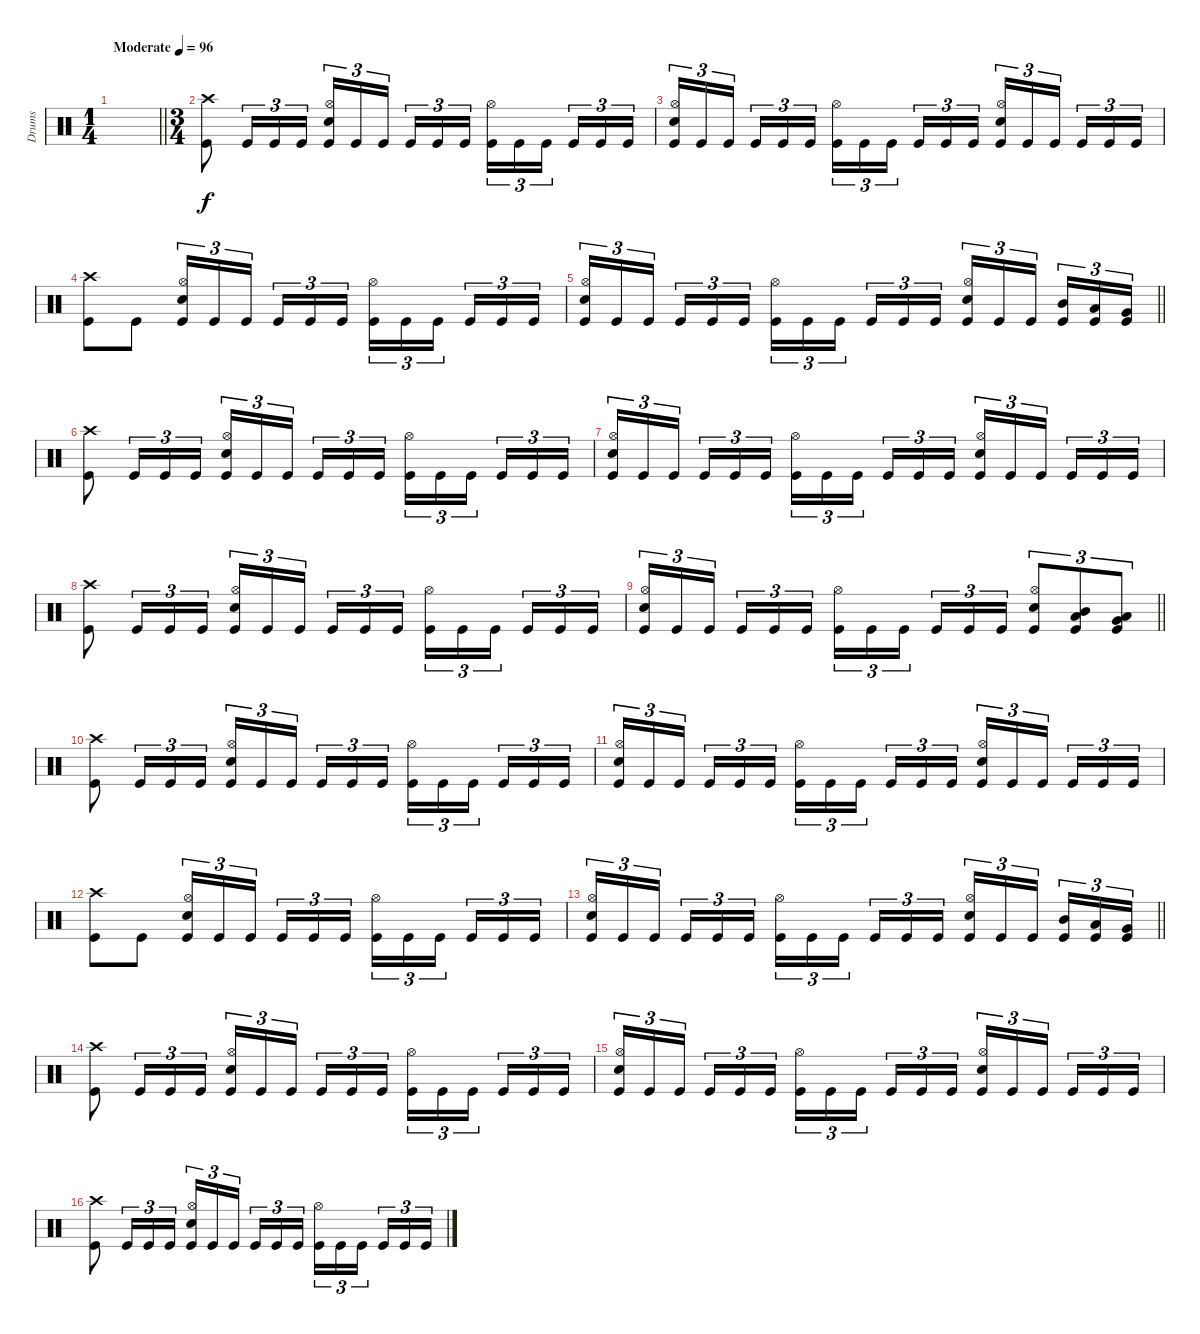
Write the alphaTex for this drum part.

\track ("Drums" "Drums") {instrument percussion}
\staff
\articulation defaults
\ts (1 4)
\tempo (96 "Moderate")
\clef neutral
\barLineRight lightlight
\ks c
|
\ts (3 4)
("Crash high (hit)" "Kick (hit)").8 "Kick (hit)".16{tu (3 2)} "Kick (hit)".16{tu (3 2)} "Kick (hit)".16{tu (3 2)} ("Hi-Hat (open)" "Electric Snare (hit)" "Kick (hit)").16{tu (3 2)} "Kick (hit)".16{tu (3 2)} "Kick (hit)".16{tu (3 2) beam splitsecondary} "Kick (hit)".16{tu (3 2)} "Kick (hit)".16{tu (3 2)} "Kick (hit)".16{tu (3 2)} ("Hi-Hat (open)" "Kick (hit)").16{tu (3 2)} "Kick (hit)".16{tu (3 2)} "Kick (hit)".16{tu (3 2) beam splitsecondary} "Kick (hit)".16{tu (3 2)} "Kick (hit)".16{tu (3 2)} "Kick (hit)".16{tu (3 2)} |
("Hi-Hat (open)" "Electric Snare (hit)" "Kick (hit)").16{tu (3 2)} "Kick (hit)".16{tu (3 2)} "Kick (hit)".16{tu (3 2) beam splitsecondary} "Kick (hit)".16{tu (3 2)} "Kick (hit)".16{tu (3 2)} "Kick (hit)".16{tu (3 2)} ("Hi-Hat (open)" "Kick (hit)").16{tu (3 2)} "Kick (hit)".16{tu (3 2)} "Kick (hit)".16{tu (3 2) beam splitsecondary} "Kick (hit)".16{tu (3 2)} "Kick (hit)".16{tu (3 2)} "Kick (hit)".16{tu (3 2)} ("Hi-Hat (open)" "Electric Snare (hit)" "Kick (hit)").16{tu (3 2)} "Kick (hit)".16{tu (3 2)} "Kick (hit)".16{tu (3 2) beam splitsecondary} "Kick (hit)".16{tu (3 2)} "Kick (hit)".16{tu (3 2)} "Kick (hit)".16{tu (3 2)} |
("Crash high (hit)" "Kick (hit)").8 "Kick (hit)".8 ("Hi-Hat (open)" "Electric Snare (hit)" "Kick (hit)").16{tu (3 2)} "Kick (hit)".16{tu (3 2)} "Kick (hit)".16{tu (3 2) beam splitsecondary} "Kick (hit)".16{tu (3 2)} "Kick (hit)".16{tu (3 2)} "Kick (hit)".16{tu (3 2)} ("Hi-Hat (open)" "Kick (hit)").16{tu (3 2)} "Kick (hit)".16{tu (3 2)} "Kick (hit)".16{tu (3 2) beam splitsecondary} "Kick (hit)".16{tu (3 2)} "Kick (hit)".16{tu (3 2)} "Kick (hit)".16{tu (3 2)} |
\barLineRight lightlight
("Hi-Hat (open)" "Electric Snare (hit)" "Kick (hit)").16{tu (3 2)} "Kick (hit)".16{tu (3 2)} "Kick (hit)".16{tu (3 2) beam splitsecondary} "Kick (hit)".16{tu (3 2)} "Kick (hit)".16{tu (3 2)} "Kick (hit)".16{tu (3 2)} ("Hi-Hat (open)" "Kick (hit)").16{tu (3 2)} "Kick (hit)".16{tu (3 2)} "Kick (hit)".16{tu (3 2) beam splitsecondary} "Kick (hit)".16{tu (3 2)} "Kick (hit)".16{tu (3 2)} "Kick (hit)".16{tu (3 2)} ("Hi-Hat (open)" "Electric Snare (hit)" "Kick (hit)").16{tu (3 2)} "Kick (hit)".16{tu (3 2)} "Kick (hit)".16{tu (3 2) beam splitsecondary} ("Mid Tom (hit)" "Kick (hit)").16{tu (3 2)} ("Low Tom (hit)" "Kick (hit)").16{tu (3 2)} ("Very Low Tom (hit)" "Kick (hit)").16{tu (3 2)} |
("Crash high (hit)" "Kick (hit)").8 "Kick (hit)".16{tu (3 2)} "Kick (hit)".16{tu (3 2)} "Kick (hit)".16{tu (3 2)} ("Hi-Hat (open)" "Electric Snare (hit)" "Kick (hit)").16{tu (3 2)} "Kick (hit)".16{tu (3 2)} "Kick (hit)".16{tu (3 2) beam splitsecondary} "Kick (hit)".16{tu (3 2)} "Kick (hit)".16{tu (3 2)} "Kick (hit)".16{tu (3 2)} ("Hi-Hat (open)" "Kick (hit)").16{tu (3 2)} "Kick (hit)".16{tu (3 2)} "Kick (hit)".16{tu (3 2) beam splitsecondary} "Kick (hit)".16{tu (3 2)} "Kick (hit)".16{tu (3 2)} "Kick (hit)".16{tu (3 2)} |
("Hi-Hat (open)" "Electric Snare (hit)" "Kick (hit)").16{tu (3 2)} "Kick (hit)".16{tu (3 2)} "Kick (hit)".16{tu (3 2) beam splitsecondary} "Kick (hit)".16{tu (3 2)} "Kick (hit)".16{tu (3 2)} "Kick (hit)".16{tu (3 2)} ("Hi-Hat (open)" "Kick (hit)").16{tu (3 2)} "Kick (hit)".16{tu (3 2)} "Kick (hit)".16{tu (3 2) beam splitsecondary} "Kick (hit)".16{tu (3 2)} "Kick (hit)".16{tu (3 2)} "Kick (hit)".16{tu (3 2)} ("Hi-Hat (open)" "Electric Snare (hit)" "Kick (hit)").16{tu (3 2)} "Kick (hit)".16{tu (3 2)} "Kick (hit)".16{tu (3 2) beam splitsecondary} "Kick (hit)".16{tu (3 2)} "Kick (hit)".16{tu (3 2)} "Kick (hit)".16{tu (3 2)} |
("Crash high (hit)" "Kick (hit)").8 "Kick (hit)".16{tu (3 2)} "Kick (hit)".16{tu (3 2)} "Kick (hit)".16{tu (3 2)} ("Hi-Hat (open)" "Electric Snare (hit)" "Kick (hit)").16{tu (3 2)} "Kick (hit)".16{tu (3 2)} "Kick (hit)".16{tu (3 2) beam splitsecondary} "Kick (hit)".16{tu (3 2)} "Kick (hit)".16{tu (3 2)} "Kick (hit)".16{tu (3 2)} ("Hi-Hat (open)" "Kick (hit)").16{tu (3 2)} "Kick (hit)".16{tu (3 2)} "Kick (hit)".16{tu (3 2) beam splitsecondary} "Kick (hit)".16{tu (3 2)} "Kick (hit)".16{tu (3 2)} "Kick (hit)".16{tu (3 2)} |
\barLineRight lightlight
("Hi-Hat (open)" "Electric Snare (hit)" "Kick (hit)").16{tu (3 2)} "Kick (hit)".16{tu (3 2)} "Kick (hit)".16{tu (3 2) beam splitsecondary} "Kick (hit)".16{tu (3 2)} "Kick (hit)".16{tu (3 2)} "Kick (hit)".16{tu (3 2)} ("Hi-Hat (open)" "Kick (hit)").16{tu (3 2)} "Kick (hit)".16{tu (3 2)} "Kick (hit)".16{tu (3 2) beam splitsecondary} "Kick (hit)".16{tu (3 2)} "Kick (hit)".16{tu (3 2)} "Kick (hit)".16{tu (3 2)} ("Hi-Hat (open)" "Electric Snare (hit)" "Kick (hit)").8{tu (3 2)} ("Mid Tom (hit)" "Low Tom (hit)" "Kick (hit)").8{tu (3 2)} ("Low Tom (hit)" "Very Low Tom (hit)" "Kick (hit)").8{tu (3 2)} |
("Crash high (hit)" "Kick (hit)").8 "Kick (hit)".16{tu (3 2)} "Kick (hit)".16{tu (3 2)} "Kick (hit)".16{tu (3 2)} ("Hi-Hat (open)" "Electric Snare (hit)" "Kick (hit)").16{tu (3 2)} "Kick (hit)".16{tu (3 2)} "Kick (hit)".16{tu (3 2) beam splitsecondary} "Kick (hit)".16{tu (3 2)} "Kick (hit)".16{tu (3 2)} "Kick (hit)".16{tu (3 2)} ("Hi-Hat (open)" "Kick (hit)").16{tu (3 2)} "Kick (hit)".16{tu (3 2)} "Kick (hit)".16{tu (3 2) beam splitsecondary} "Kick (hit)".16{tu (3 2)} "Kick (hit)".16{tu (3 2)} "Kick (hit)".16{tu (3 2)} |
("Hi-Hat (open)" "Electric Snare (hit)" "Kick (hit)").16{tu (3 2)} "Kick (hit)".16{tu (3 2)} "Kick (hit)".16{tu (3 2) beam splitsecondary} "Kick (hit)".16{tu (3 2)} "Kick (hit)".16{tu (3 2)} "Kick (hit)".16{tu (3 2)} ("Hi-Hat (open)" "Kick (hit)").16{tu (3 2)} "Kick (hit)".16{tu (3 2)} "Kick (hit)".16{tu (3 2) beam splitsecondary} "Kick (hit)".16{tu (3 2)} "Kick (hit)".16{tu (3 2)} "Kick (hit)".16{tu (3 2)} ("Hi-Hat (open)" "Electric Snare (hit)" "Kick (hit)").16{tu (3 2)} "Kick (hit)".16{tu (3 2)} "Kick (hit)".16{tu (3 2) beam splitsecondary} "Kick (hit)".16{tu (3 2)} "Kick (hit)".16{tu (3 2)} "Kick (hit)".16{tu (3 2)} |
("Crash high (hit)" "Kick (hit)").8 "Kick (hit)".8 ("Hi-Hat (open)" "Electric Snare (hit)" "Kick (hit)").16{tu (3 2)} "Kick (hit)".16{tu (3 2)} "Kick (hit)".16{tu (3 2) beam splitsecondary} "Kick (hit)".16{tu (3 2)} "Kick (hit)".16{tu (3 2)} "Kick (hit)".16{tu (3 2)} ("Hi-Hat (open)" "Kick (hit)").16{tu (3 2)} "Kick (hit)".16{tu (3 2)} "Kick (hit)".16{tu (3 2) beam splitsecondary} "Kick (hit)".16{tu (3 2)} "Kick (hit)".16{tu (3 2)} "Kick (hit)".16{tu (3 2)} |
\barLineRight lightlight
("Hi-Hat (open)" "Electric Snare (hit)" "Kick (hit)").16{tu (3 2)} "Kick (hit)".16{tu (3 2)} "Kick (hit)".16{tu (3 2) beam splitsecondary} "Kick (hit)".16{tu (3 2)} "Kick (hit)".16{tu (3 2)} "Kick (hit)".16{tu (3 2)} ("Hi-Hat (open)" "Kick (hit)").16{tu (3 2)} "Kick (hit)".16{tu (3 2)} "Kick (hit)".16{tu (3 2) beam splitsecondary} "Kick (hit)".16{tu (3 2)} "Kick (hit)".16{tu (3 2)} "Kick (hit)".16{tu (3 2)} ("Hi-Hat (open)" "Electric Snare (hit)" "Kick (hit)").16{tu (3 2)} "Kick (hit)".16{tu (3 2)} "Kick (hit)".16{tu (3 2) beam splitsecondary} ("Mid Tom (hit)" "Kick (hit)").16{tu (3 2)} ("Low Tom (hit)" "Kick (hit)").16{tu (3 2)} ("Very Low Tom (hit)" "Kick (hit)").16{tu (3 2)} |
("Crash high (hit)" "Kick (hit)").8 "Kick (hit)".16{tu (3 2)} "Kick (hit)".16{tu (3 2)} "Kick (hit)".16{tu (3 2)} ("Hi-Hat (open)" "Electric Snare (hit)" "Kick (hit)").16{tu (3 2)} "Kick (hit)".16{tu (3 2)} "Kick (hit)".16{tu (3 2) beam splitsecondary} "Kick (hit)".16{tu (3 2)} "Kick (hit)".16{tu (3 2)} "Kick (hit)".16{tu (3 2)} ("Hi-Hat (open)" "Kick (hit)").16{tu (3 2)} "Kick (hit)".16{tu (3 2)} "Kick (hit)".16{tu (3 2) beam splitsecondary} "Kick (hit)".16{tu (3 2)} "Kick (hit)".16{tu (3 2)} "Kick (hit)".16{tu (3 2)} |
("Hi-Hat (open)" "Electric Snare (hit)" "Kick (hit)").16{tu (3 2)} "Kick (hit)".16{tu (3 2)} "Kick (hit)".16{tu (3 2) beam splitsecondary} "Kick (hit)".16{tu (3 2)} "Kick (hit)".16{tu (3 2)} "Kick (hit)".16{tu (3 2)} ("Hi-Hat (open)" "Kick (hit)").16{tu (3 2)} "Kick (hit)".16{tu (3 2)} "Kick (hit)".16{tu (3 2) beam splitsecondary} "Kick (hit)".16{tu (3 2)} "Kick (hit)".16{tu (3 2)} "Kick (hit)".16{tu (3 2)} ("Hi-Hat (open)" "Electric Snare (hit)" "Kick (hit)").16{tu (3 2)} "Kick (hit)".16{tu (3 2)} "Kick (hit)".16{tu (3 2) beam splitsecondary} "Kick (hit)".16{tu (3 2)} "Kick (hit)".16{tu (3 2)} "Kick (hit)".16{tu (3 2)} |
("Crash high (hit)" "Kick (hit)").8 "Kick (hit)".16{tu (3 2)} "Kick (hit)".16{tu (3 2)} "Kick (hit)".16{tu (3 2)} ("Hi-Hat (open)" "Electric Snare (hit)" "Kick (hit)").16{tu (3 2)} "Kick (hit)".16{tu (3 2)} "Kick (hit)".16{tu (3 2) beam splitsecondary} "Kick (hit)".16{tu (3 2)} "Kick (hit)".16{tu (3 2)} "Kick (hit)".16{tu (3 2)} ("Hi-Hat (open)" "Kick (hit)").16{tu (3 2)} "Kick (hit)".16{tu (3 2)} "Kick (hit)".16{tu (3 2) beam splitsecondary} "Kick (hit)".16{tu (3 2)} "Kick (hit)".16{tu (3 2)} "Kick (hit)".16{tu (3 2)}
